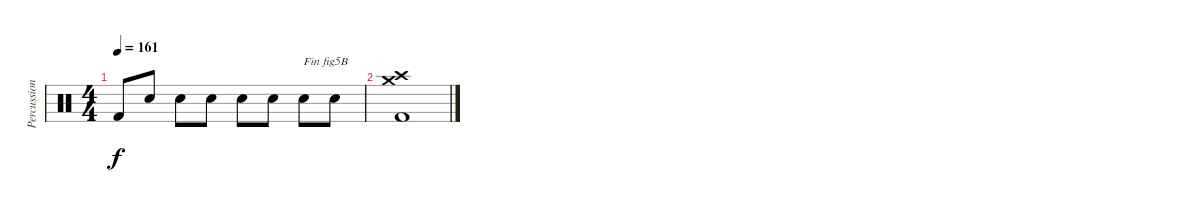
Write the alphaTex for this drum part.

\track ("Percussions" "Percussion") {instrument percussion}
\staff {score}
\articulation defaults
\ts (4 4)
\tempo 161
\clef neutral
\ks c "Kick (hit) 2".8{dy f} "Electric Snare (hit)".8 "Electric Snare (hit)".8 "Electric Snare (hit)".8 "Electric Snare (hit)".8 "Electric Snare (hit)".8 "Electric Snare (hit)".8{txt "Fin fig5B"} "Electric Snare (hit)".8
|
("Kick (hit) 2" "Crash medium (hit)" "Crash high (hit)").1
